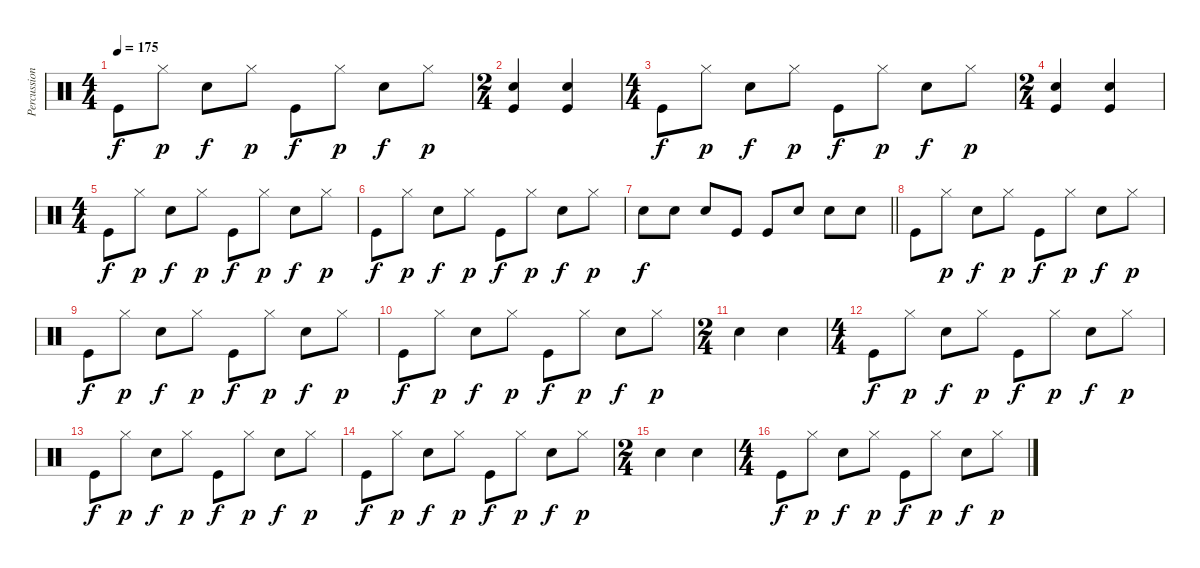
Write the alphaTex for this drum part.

\track ("Percussion" "Percussion") {instrument percussion}
\staff {score}
\articulation defaults
\ts (4 4)
\tempo 175
\clef neutral
\ks c "Kick (hit)".8{dy f} "Hi-Hat (closed)".8{dy p} "Snare (hit) 2".8{dy f} "Hi-Hat (closed)".8{dy p} "Kick (hit)".8{dy f} "Hi-Hat (closed)".8{dy p} "Snare (hit) 2".8{dy f} "Hi-Hat (closed)".8{dy p}
|
\ts (2 4)
("Snare (hit) 2" "Kick (hit)").4 ("Snare (hit) 2" "Kick (hit)").4 |
\ts (4 4)
"Kick (hit)".8{dy f} "Hi-Hat (closed)".8{dy p} "Snare (hit) 2".8{dy f} "Hi-Hat (closed)".8{dy p} "Kick (hit)".8{dy f} "Hi-Hat (closed)".8{dy p} "Snare (hit) 2".8{dy f} "Hi-Hat (closed)".8{dy p} |
\ts (2 4)
("Snare (hit) 2" "Kick (hit)").4 ("Snare (hit) 2" "Kick (hit)").4 |
\ts (4 4)
"Kick (hit)".8{dy f} "Hi-Hat (closed)".8{dy p} "Snare (hit) 2".8{dy f} "Hi-Hat (closed)".8{dy p} "Kick (hit)".8{dy f} "Hi-Hat (closed)".8{dy p} "Snare (hit) 2".8{dy f} "Hi-Hat (closed)".8{dy p} |
"Kick (hit)".8{dy f} "Hi-Hat (closed)".8{dy p} "Snare (hit) 2".8{dy f} "Hi-Hat (closed)".8{dy p} "Kick (hit)".8{dy f} "Hi-Hat (closed)".8{dy p} "Snare (hit) 2".8{dy f} "Hi-Hat (closed)".8{dy p} |
\barLineRight lightlight "Snare (hit) 2".8{dy f} "Snare (hit) 2".8 "Snare (hit) 2".8 "Kick (hit)".8 "Kick (hit)".8 "Snare (hit) 2".8 "Snare (hit) 2".8 "Snare (hit) 2".8
|
"Kick (hit)".8 "Hi-Hat (closed)".8{dy p} "Snare (hit) 2".8{dy f} "Hi-Hat (closed)".8{dy p} "Kick (hit)".8{dy f} "Hi-Hat (closed)".8{dy p} "Snare (hit) 2".8{dy f} "Hi-Hat (closed)".8{dy p} |
"Kick (hit)".8{dy f} "Hi-Hat (closed)".8{dy p} "Snare (hit) 2".8{dy f} "Hi-Hat (closed)".8{dy p} "Kick (hit)".8{dy f} "Hi-Hat (closed)".8{dy p} "Snare (hit) 2".8{dy f} "Hi-Hat (closed)".8{dy p} |
"Kick (hit)".8{dy f} "Hi-Hat (closed)".8{dy p} "Snare (hit) 2".8{dy f} "Hi-Hat (closed)".8{dy p} "Kick (hit)".8{dy f} "Hi-Hat (closed)".8{dy p} "Snare (hit) 2".8{dy f} "Hi-Hat (closed)".8{dy p} |
\ts (2 4)
"Snare (hit) 2".4 "Snare (hit) 2".4 |
\ts (4 4)
"Kick (hit)".8{dy f} "Hi-Hat (closed)".8{dy p} "Snare (hit) 2".8{dy f} "Hi-Hat (closed)".8{dy p} "Kick (hit)".8{dy f} "Hi-Hat (closed)".8{dy p} "Snare (hit) 2".8{dy f} "Hi-Hat (closed)".8{dy p} |
"Kick (hit)".8{dy f} "Hi-Hat (closed)".8{dy p} "Snare (hit) 2".8{dy f} "Hi-Hat (closed)".8{dy p} "Kick (hit)".8{dy f} "Hi-Hat (closed)".8{dy p} "Snare (hit) 2".8{dy f} "Hi-Hat (closed)".8{dy p} |
"Kick (hit)".8{dy f} "Hi-Hat (closed)".8{dy p} "Snare (hit) 2".8{dy f} "Hi-Hat (closed)".8{dy p} "Kick (hit)".8{dy f} "Hi-Hat (closed)".8{dy p} "Snare (hit) 2".8{dy f} "Hi-Hat (closed)".8{dy p} |
\ts (2 4)
"Snare (hit) 2".4 "Snare (hit) 2".4 |
\ts (4 4)
"Kick (hit)".8{dy f} "Hi-Hat (closed)".8{dy p} "Snare (hit) 2".8{dy f} "Hi-Hat (closed)".8{dy p} "Kick (hit)".8{dy f} "Hi-Hat (closed)".8{dy p} "Snare (hit) 2".8{dy f} "Hi-Hat (closed)".8{dy p}
